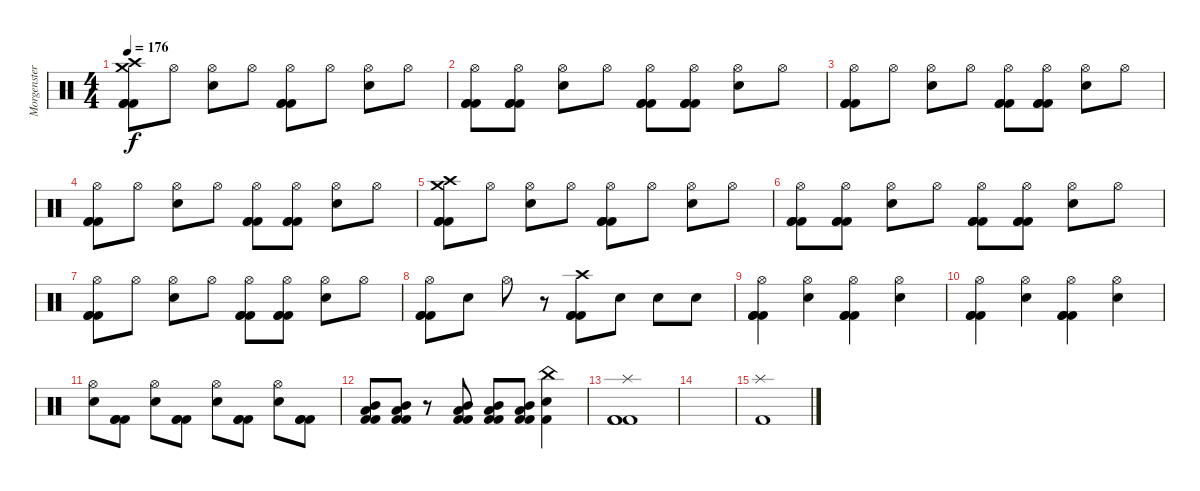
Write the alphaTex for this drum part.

\track ("Morgenstern (Schlagzeug)" "Morgenster") {instrument percussion}
\staff {score}
\articulation defaults
\ts (4 4)
\tempo 176
\clef neutral
\ks c
("Crash high (hit)" "Crash medium (hit)" "Kick (hit) 2" "Kick (hit) 2" "Kick (hit) 2").8{dy f} "Hi-Hat (open)".8 ("Hi-Hat (open)" "Snare (hit) 2").8 "Hi-Hat (open)".8 ("Hi-Hat (open)" "Kick (hit) 2" "Kick (hit) 2" "Kick (hit) 2").8 "Hi-Hat (open)".8 ("Hi-Hat (open)" "Snare (hit) 2").8 "Hi-Hat (open)".8 |
("Hi-Hat (open)" "Kick (hit) 2" "Kick (hit) 2" "Kick (hit) 2").8 ("Hi-Hat (open)" "Kick (hit) 2" "Kick (hit) 2" "Kick (hit) 2").8 ("Hi-Hat (open)" "Snare (hit) 2").8 "Hi-Hat (open)".8 ("Hi-Hat (open)" "Kick (hit) 2" "Kick (hit) 2" "Kick (hit) 2").8 ("Hi-Hat (open)" "Kick (hit) 2" "Kick (hit) 2" "Kick (hit) 2").8 ("Hi-Hat (open)" "Snare (hit) 2").8 "Hi-Hat (open)".8 |
("Hi-Hat (open)" "Kick (hit) 2" "Kick (hit) 2" "Kick (hit) 2").8 "Hi-Hat (open)".8 ("Hi-Hat (open)" "Snare (hit) 2").8 "Hi-Hat (open)".8 ("Hi-Hat (open)" "Kick (hit) 2" "Kick (hit) 2" "Kick (hit) 2").8 ("Hi-Hat (open)" "Kick (hit) 2" "Kick (hit) 2" "Kick (hit) 2").8 ("Hi-Hat (open)" "Snare (hit) 2").8 "Hi-Hat (open)".8 |
("Hi-Hat (open)" "Kick (hit) 2" "Kick (hit) 2" "Kick (hit) 2").8 "Hi-Hat (open)".8 ("Hi-Hat (open)" "Snare (hit) 2").8 "Hi-Hat (open)".8 ("Hi-Hat (open)" "Kick (hit) 2" "Kick (hit) 2" "Kick (hit) 2").8 ("Hi-Hat (open)" "Kick (hit) 2" "Kick (hit) 2" "Kick (hit) 2").8 ("Hi-Hat (open)" "Snare (hit) 2").8 "Hi-Hat (open)".8 |
("Crash high (hit)" "Crash medium (hit)" "Kick (hit) 2" "Kick (hit) 2" "Kick (hit) 2").8 "Hi-Hat (open)".8 ("Hi-Hat (open)" "Snare (hit) 2").8 "Hi-Hat (open)".8 ("Hi-Hat (open)" "Kick (hit) 2" "Kick (hit) 2" "Kick (hit) 2").8 "Hi-Hat (open)".8 ("Hi-Hat (open)" "Snare (hit) 2").8 "Hi-Hat (open)".8 |
("Hi-Hat (open)" "Kick (hit) 2" "Kick (hit) 2" "Kick (hit) 2").8 ("Hi-Hat (open)" "Kick (hit) 2" "Kick (hit) 2" "Kick (hit) 2").8 ("Hi-Hat (open)" "Snare (hit) 2").8 "Hi-Hat (open)".8 ("Hi-Hat (open)" "Kick (hit) 2" "Kick (hit) 2" "Kick (hit) 2").8 ("Hi-Hat (open)" "Kick (hit) 2" "Kick (hit) 2" "Kick (hit) 2").8 ("Hi-Hat (open)" "Snare (hit) 2").8 "Hi-Hat (open)".8 |
("Hi-Hat (open)" "Kick (hit) 2" "Kick (hit) 2" "Kick (hit) 2").8 "Hi-Hat (open)".8 ("Hi-Hat (open)" "Snare (hit) 2").8 "Hi-Hat (open)".8 ("Hi-Hat (open)" "Kick (hit) 2" "Kick (hit) 2" "Kick (hit) 2").8 ("Hi-Hat (open)" "Kick (hit) 2" "Kick (hit) 2" "Kick (hit) 2").8 ("Hi-Hat (open)" "Snare (hit) 2").8 "Hi-Hat (open)".8 |
("Hi-Hat (open)" "Kick (hit) 2" "Kick (hit) 2" "Kick (hit) 2").8 "Snare (hit) 2".8 "Hi-Hat (open)".8 r.8 ("Crash high (hit)" "Kick (hit) 2" "Kick (hit) 2" "Kick (hit) 2").8 "Snare (hit) 2".8 "Snare (hit) 2".8 "Snare (hit) 2".8 |
("Hi-Hat (open)" "Kick (hit) 2" "Kick (hit) 2" "Kick (hit) 2").4 ("Hi-Hat (open)" "Snare (hit) 2").4 ("Hi-Hat (open)" "Kick (hit) 2" "Kick (hit) 2" "Kick (hit) 2").4 ("Hi-Hat (open)" "Snare (hit) 2").4 |
("Hi-Hat (open)" "Kick (hit) 2" "Kick (hit) 2" "Kick (hit) 2").4 ("Hi-Hat (open)" "Snare (hit) 2").4 ("Hi-Hat (open)" "Kick (hit) 2" "Kick (hit) 2" "Kick (hit) 2").4 ("Hi-Hat (open)" "Snare (hit) 2").4 |
("Hi-Hat (open)" "Snare (hit) 2").8 ("Kick (hit) 2" "Kick (hit) 2" "Kick (hit) 2").8 ("Hi-Hat (open)" "Snare (hit) 2").8 ("Kick (hit) 2" "Kick (hit) 2" "Kick (hit) 2").8 ("Hi-Hat (open)" "Snare (hit) 2").8 ("Kick (hit) 2" "Kick (hit) 2" "Kick (hit) 2").8 ("Hi-Hat (open)" "Snare (hit) 2").8 ("Kick (hit) 2" "Kick (hit) 2" "Kick (hit) 2").8 |
("Mid Tom (hit)" "Low Floor Tom (hit)" "Kick (hit) 2" "Kick (hit) 2").8 ("Mid Tom (hit)" "Low Floor Tom (hit)" "Kick (hit) 2" "Kick (hit) 2").8 r.8 ("Mid Tom (hit)" "Low Floor Tom (hit)" "Kick (hit) 2" "Kick (hit) 2").8 ("Mid Tom (hit)" "Low Floor Tom (hit)" "Kick (hit) 2" "Kick (hit) 2").8 ("Mid Tom (hit)" "Low Floor Tom (hit)" "Kick (hit) 2" "Kick (hit) 2").8 ("China (hit)" "Snare (hit) 2" "Kick (hit) 2").4 |
("Splash (hit)" "Kick (hit) 2" "Kick (hit) 2" "Kick (hit) 2").1 |
|
("Splash (hit)" "Kick (hit) 2").1
